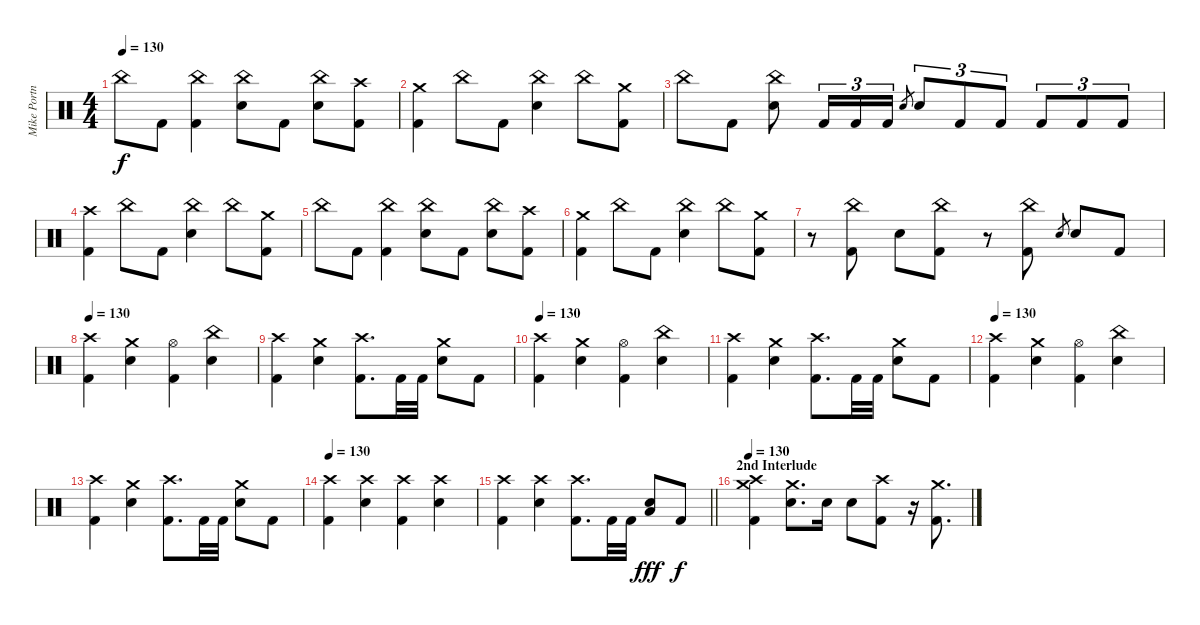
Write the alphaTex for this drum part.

\track ("Mike Portnoy" "Mike Portn") {instrument percussion}
\staff {score}
\articulation defaults
\ts (4 4)
\tempo 130
\clef neutral
\ks c "China (hit)".8{dy f} "Kick (hit) 2".8
("China (hit)" "Kick (hit) 2").4 ("China (hit)" "Electric Snare (hit)").8 "Kick (hit) 2".8 ("China (hit)" "Electric Snare (hit)").8 ("Crash high (hit)" "Kick (hit) 2").8 |
("Crash medium (hit)" "Kick (hit) 2").4 "China (hit)".8 "Kick (hit) 2".8 ("China (hit)" "Electric Snare (hit)").4 "China (hit)".8 ("Crash medium (hit)" "Kick (hit) 2").8 |
"China (hit)".8 "Kick (hit) 2".8 ("China (hit)" "Electric Snare (hit)").8 "Kick (hit) 2".16{tu (3 2)} "Kick (hit) 2".16{tu (3 2)} "Kick (hit) 2".16{tu (3 2)} "Electric Snare (hit)".8{gr} "Electric Snare (hit)".8{tu (3 2)} "Kick (hit) 2".8{tu (3 2)} "Kick (hit) 2".8{tu (3 2)} "Kick (hit) 2".8{tu (3 2)} "Kick (hit) 2".8{tu (3 2)} "Kick (hit) 2".8{tu (3 2)} |
("Crash high (hit)" "Kick (hit) 2").4 "China (hit)".8 "Kick (hit) 2".8 ("China (hit)" "Electric Snare (hit)").4 "China (hit)".8 ("Crash medium (hit)" "Kick (hit) 2").8 |
"China (hit)".8 "Kick (hit) 2".8 ("China (hit)" "Kick (hit) 2").4 ("China (hit)" "Electric Snare (hit)").8 "Kick (hit) 2".8 ("China (hit)" "Electric Snare (hit)").8 ("Crash high (hit)" "Kick (hit) 2").8 |
("Crash medium (hit)" "Kick (hit) 2").4 "China (hit)".8 "Kick (hit) 2".8 ("China (hit)" "Electric Snare (hit)").4 "China (hit)".8 ("Crash medium (hit)" "Kick (hit) 2").8 |
r.8 ("China (hit)" "Kick (hit) 2").8 "Electric Snare (hit)".8 ("China (hit)" "Kick (hit) 2").8 r.8 ("China (hit)" "Kick (hit) 2").8 "Electric Snare (hit)".8{gr} "Electric Snare (hit)".8 "Kick (hit) 2".8 |
\tempo 130
("Crash high (hit)" "Kick (hit) 2").4 ("Crash medium (hit)" "Electric Snare (hit)").4 ("Hi-Hat (open)" "Kick (hit) 2").4 ("China (hit)" "Electric Snare (hit)").4 |
("Crash high (hit)" "Kick (hit) 2").4 ("Crash medium (hit)" "Electric Snare (hit)").4 ("Crash high (hit)" "Kick (hit) 2").8{d} "Kick (hit) 2".32 "Kick (hit) 2".32 ("Crash medium (hit)" "Electric Snare (hit)").8 "Kick (hit) 2".8 |
\tempo 130
("Crash high (hit)" "Kick (hit) 2").4 ("Crash medium (hit)" "Electric Snare (hit)").4 ("Hi-Hat (open)" "Kick (hit) 2").4 ("China (hit)" "Electric Snare (hit)").4 |
("Crash high (hit)" "Kick (hit) 2").4 ("Crash medium (hit)" "Electric Snare (hit)").4 ("Crash high (hit)" "Kick (hit) 2").8{d} "Kick (hit) 2".32 "Kick (hit) 2".32 ("Crash medium (hit)" "Electric Snare (hit)").8 "Kick (hit) 2".8 |
\tempo 130
("Crash high (hit)" "Kick (hit) 2").4 ("Crash medium (hit)" "Electric Snare (hit)").4 ("Hi-Hat (open)" "Kick (hit) 2").4 ("China (hit)" "Electric Snare (hit)").4 |
("Crash high (hit)" "Kick (hit) 2").4 ("Crash medium (hit)" "Electric Snare (hit)").4 ("Crash high (hit)" "Kick (hit) 2").8{d} "Kick (hit) 2".32 "Kick (hit) 2".32 ("Crash medium (hit)" "Electric Snare (hit)").8 "Kick (hit) 2".8 |
\tempo 130
("Crash high (hit)" "Kick (hit) 2").4 ("Crash high (hit)" "Electric Snare (hit)").4 ("Crash high (hit)" "Kick (hit) 2").4 ("Crash high (hit)" "Electric Snare (hit)").4 |
\barLineRight lightlight
("Crash high (hit)" "Kick (hit) 2").4 ("Crash high (hit)" "Electric Snare (hit)").4 ("Crash high (hit)" "Kick (hit) 2").8{d} "Kick (hit) 2".32 "Kick (hit) 2".32 ("Electric Snare (hit)" "Low Floor Tom (hit)").8{dy fff} "Kick (hit) 2".8{dy f} |
\section ("" "2nd Interlude")
\tempo 130
("Crash high (hit)" "Crash medium (hit)" "Kick (hit) 2").4 ("Crash medium (hit)" "Electric Snare (hit)").8{d} "Electric Snare (hit)".16 "Electric Snare (hit)".8 ("Crash high (hit)" "Kick (hit) 2").8 r.16 ("Crash medium (hit)" "Kick (hit) 2").8{d}
